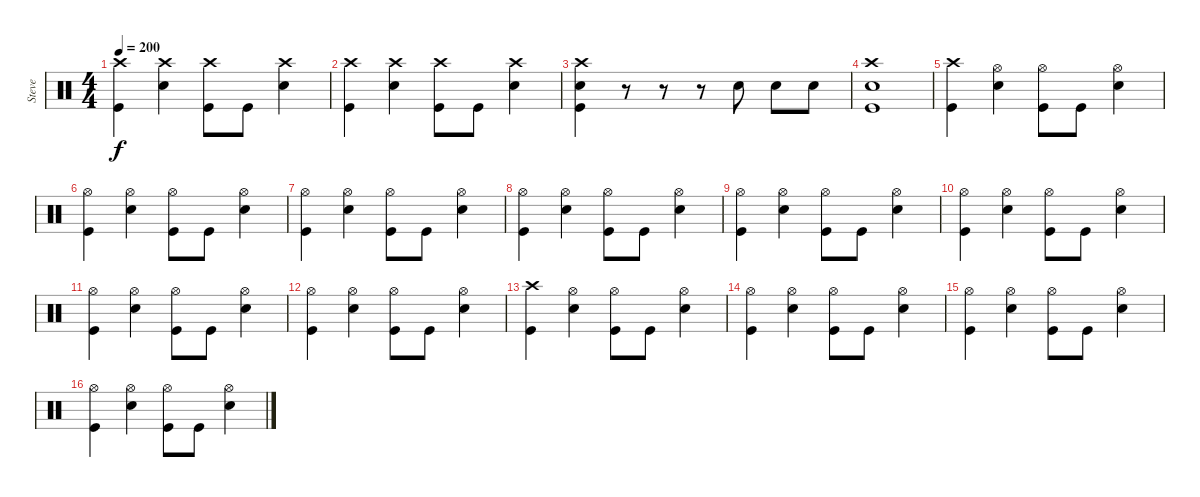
\track ("Steve" "Steve") {instrument percussion}
\staff {score}
\articulation defaults
\ts (4 4)
\tempo 200
\clef neutral
\ks c
("Crash high (hit)" "Kick (hit)").4{dy f} ("Crash high (hit)" "Snare (hit) 2").4 ("Crash high (hit)" "Kick (hit)").8 "Kick (hit)".8 ("Crash high (hit)" "Snare (hit) 2").4 |
("Crash high (hit)" "Kick (hit)").4 ("Crash high (hit)" "Snare (hit) 2").4 ("Crash high (hit)" "Kick (hit)").8 "Kick (hit)".8 ("Crash high (hit)" "Snare (hit) 2").4 |
("Crash high (hit)" "Snare (hit) 2" "Kick (hit)").4 r.8 r.8 r.8 "Snare (hit) 2".8 "Snare (hit) 2".8 "Snare (hit) 2".8 |
("Crash high (hit)" "Snare (hit) 2" "Kick (hit)").1 |
("Crash high (hit)" "Kick (hit)").4{volume 13} ("Hi-Hat (open)" "Snare (hit) 2").4 ("Hi-Hat (open)" "Kick (hit)").8 "Kick (hit)".8 ("Hi-Hat (open)" "Snare (hit) 2").4 |
("Hi-Hat (open)" "Kick (hit)").4 ("Hi-Hat (open)" "Snare (hit) 2").4 ("Hi-Hat (open)" "Kick (hit)").8 "Kick (hit)".8 ("Hi-Hat (open)" "Snare (hit) 2").4 |
("Hi-Hat (open)" "Kick (hit)").4 ("Hi-Hat (open)" "Snare (hit) 2").4 ("Hi-Hat (open)" "Kick (hit)").8 "Kick (hit)".8 ("Hi-Hat (open)" "Snare (hit) 2").4 |
("Hi-Hat (open)" "Kick (hit)").4 ("Hi-Hat (open)" "Snare (hit) 2").4 ("Hi-Hat (open)" "Kick (hit)").8 "Kick (hit)".8 ("Hi-Hat (open)" "Snare (hit) 2").4 |
("Hi-Hat (open)" "Kick (hit)").4 ("Hi-Hat (open)" "Snare (hit) 2").4 ("Hi-Hat (open)" "Kick (hit)").8 "Kick (hit)".8 ("Hi-Hat (open)" "Snare (hit) 2").4 |
("Hi-Hat (open)" "Kick (hit)").4 ("Hi-Hat (open)" "Snare (hit) 2").4 ("Hi-Hat (open)" "Kick (hit)").8 "Kick (hit)".8 ("Hi-Hat (open)" "Snare (hit) 2").4 |
("Hi-Hat (open)" "Kick (hit)").4 ("Hi-Hat (open)" "Snare (hit) 2").4 ("Hi-Hat (open)" "Kick (hit)").8 "Kick (hit)".8 ("Hi-Hat (open)" "Snare (hit) 2").4 |
("Hi-Hat (open)" "Kick (hit)").4 ("Hi-Hat (open)" "Snare (hit) 2").4 ("Hi-Hat (open)" "Kick (hit)").8 "Kick (hit)".8 ("Hi-Hat (open)" "Snare (hit) 2").4 |
("Crash high (hit)" "Kick (hit)").4 ("Hi-Hat (open)" "Snare (hit) 2").4 ("Hi-Hat (open)" "Kick (hit)").8 "Kick (hit)".8 ("Hi-Hat (open)" "Snare (hit) 2").4 |
("Hi-Hat (open)" "Kick (hit)").4 ("Hi-Hat (open)" "Snare (hit) 2").4 ("Hi-Hat (open)" "Kick (hit)").8 "Kick (hit)".8 ("Hi-Hat (open)" "Snare (hit) 2").4 |
("Hi-Hat (open)" "Kick (hit)").4 ("Hi-Hat (open)" "Snare (hit) 2").4 ("Hi-Hat (open)" "Kick (hit)").8 "Kick (hit)".8 ("Hi-Hat (open)" "Snare (hit) 2").4 |
("Hi-Hat (open)" "Kick (hit)").4 ("Hi-Hat (open)" "Snare (hit) 2").4 ("Hi-Hat (open)" "Kick (hit)").8 "Kick (hit)".8 ("Hi-Hat (open)" "Snare (hit) 2").4
